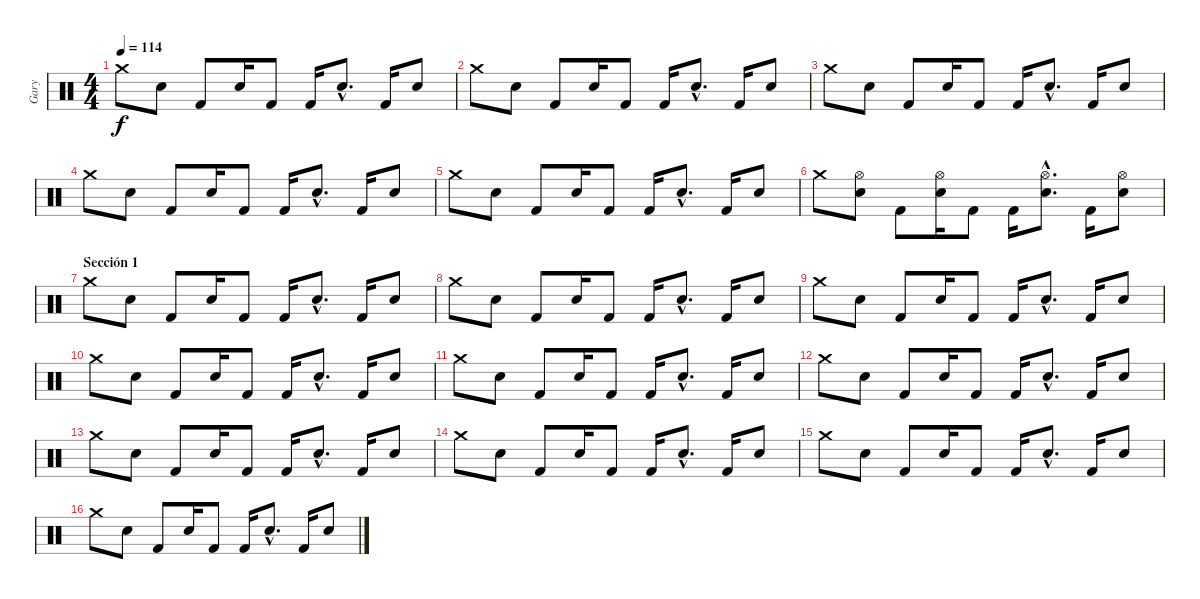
\track ("Gary" "Gary") {instrument percussion}
\staff {score}
\articulation defaults
\ts (4 4)
\tempo 114
\clef neutral
\ks c "Crash medium (hit)".8{dy f} "Snare (hit) 2".8 "Kick (hit) 2".8 "Snare (hit) 2".16 "Kick (hit) 2".8 "Kick (hit) 2".16 "Snare (hit) 2"{hac}.8{d} "Kick (hit) 2".16 "Snare (hit) 2".8
|
"Crash medium (hit)".8 "Snare (hit) 2".8 "Kick (hit) 2".8 "Snare (hit) 2".16 "Kick (hit) 2".8 "Kick (hit) 2".16 "Snare (hit) 2"{hac}.8{d} "Kick (hit) 2".16 "Snare (hit) 2".8 |
"Crash medium (hit)".8 "Snare (hit) 2".8 "Kick (hit) 2".8 "Snare (hit) 2".16 "Kick (hit) 2".8 "Kick (hit) 2".16 "Snare (hit) 2"{hac}.8{d} "Kick (hit) 2".16 "Snare (hit) 2".8 |
"Crash medium (hit)".8 "Snare (hit) 2".8 "Kick (hit) 2".8 "Snare (hit) 2".16 "Kick (hit) 2".8 "Kick (hit) 2".16 "Snare (hit) 2"{hac}.8{d} "Kick (hit) 2".16 "Snare (hit) 2".8 |
"Crash medium (hit)".8 "Snare (hit) 2".8 "Kick (hit) 2".8 "Snare (hit) 2".16 "Kick (hit) 2".8 "Kick (hit) 2".16 "Snare (hit) 2"{hac}.8{d} "Kick (hit) 2".16 "Snare (hit) 2".8 |
"Crash medium (hit)".8 ("Hi-Hat (open)" "Snare (hit) 2").8 "Kick (hit) 2".8 ("Hi-Hat (open)" "Snare (hit) 2").16 "Kick (hit) 2".8 "Kick (hit) 2".16 ("Hi-Hat (open)"{hac} "Snare (hit) 2"{hac}).8{d} "Kick (hit) 2".16 ("Hi-Hat (open)" "Snare (hit) 2").8 |
\section ("" "Sección 1")
"Crash medium (hit)".8 "Snare (hit) 2".8 "Kick (hit) 2".8 "Snare (hit) 2".16 "Kick (hit) 2".8 "Kick (hit) 2".16 "Snare (hit) 2"{hac}.8{d} "Kick (hit) 2".16 "Snare (hit) 2".8 |
"Crash medium (hit)".8 "Snare (hit) 2".8 "Kick (hit) 2".8 "Snare (hit) 2".16 "Kick (hit) 2".8 "Kick (hit) 2".16 "Snare (hit) 2"{hac}.8{d} "Kick (hit) 2".16 "Snare (hit) 2".8 |
"Crash medium (hit)".8 "Snare (hit) 2".8 "Kick (hit) 2".8 "Snare (hit) 2".16 "Kick (hit) 2".8 "Kick (hit) 2".16 "Snare (hit) 2"{hac}.8{d} "Kick (hit) 2".16 "Snare (hit) 2".8 |
"Crash medium (hit)".8 "Snare (hit) 2".8 "Kick (hit) 2".8 "Snare (hit) 2".16 "Kick (hit) 2".8 "Kick (hit) 2".16 "Snare (hit) 2"{hac}.8{d} "Kick (hit) 2".16 "Snare (hit) 2".8 |
"Crash medium (hit)".8 "Snare (hit) 2".8 "Kick (hit) 2".8 "Snare (hit) 2".16 "Kick (hit) 2".8 "Kick (hit) 2".16 "Snare (hit) 2"{hac}.8{d} "Kick (hit) 2".16 "Snare (hit) 2".8 |
"Crash medium (hit)".8 "Snare (hit) 2".8 "Kick (hit) 2".8 "Snare (hit) 2".16 "Kick (hit) 2".8 "Kick (hit) 2".16 "Snare (hit) 2"{hac}.8{d} "Kick (hit) 2".16 "Snare (hit) 2".8 |
"Crash medium (hit)".8 "Snare (hit) 2".8 "Kick (hit) 2".8 "Snare (hit) 2".16 "Kick (hit) 2".8 "Kick (hit) 2".16 "Snare (hit) 2"{hac}.8{d} "Kick (hit) 2".16 "Snare (hit) 2".8 |
"Crash medium (hit)".8 "Snare (hit) 2".8 "Kick (hit) 2".8 "Snare (hit) 2".16 "Kick (hit) 2".8 "Kick (hit) 2".16 "Snare (hit) 2"{hac}.8{d} "Kick (hit) 2".16 "Snare (hit) 2".8 |
"Crash medium (hit)".8 "Snare (hit) 2".8 "Kick (hit) 2".8 "Snare (hit) 2".16 "Kick (hit) 2".8 "Kick (hit) 2".16 "Snare (hit) 2"{hac}.8{d} "Kick (hit) 2".16 "Snare (hit) 2".8 |
"Crash medium (hit)".8 "Snare (hit) 2".8 "Kick (hit) 2".8 "Snare (hit) 2".16 "Kick (hit) 2".8 "Kick (hit) 2".16 "Snare (hit) 2"{hac}.8{d} "Kick (hit) 2".16 "Snare (hit) 2".8
